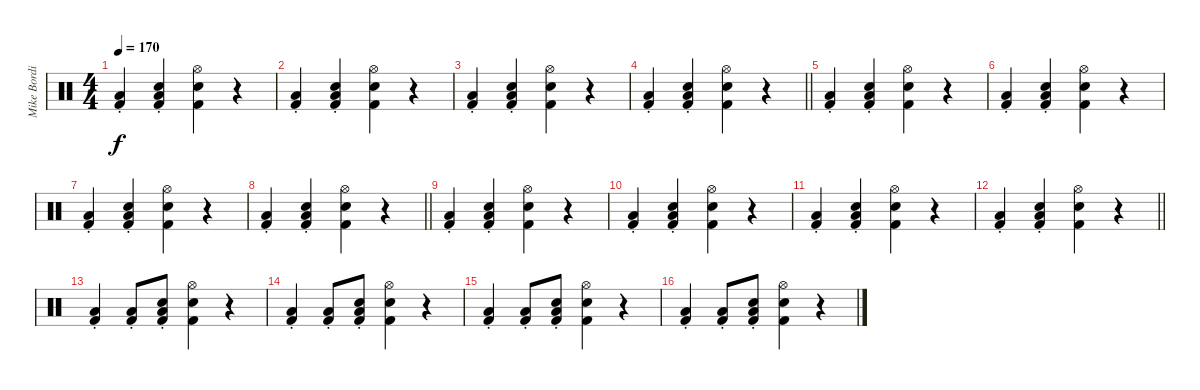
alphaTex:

\track ("Mike Bordin" "Mike Bordi") {instrument percussion}
\staff {score}
\articulation defaults
\ts (4 4)
\tempo 170
\clef neutral
\ks c
("Kick (hit) 2"{st} "Low Floor Tom (hit)").4{dy f volume 14} ("Snare (hit) 2" "Kick (hit) 2"{st} "Low Floor Tom (hit)").4 ("Hi-Hat (open)" "Snare (hit) 2" "Kick (hit) 2").4 r.4 |
("Kick (hit) 2"{st} "Low Floor Tom (hit)").4 ("Snare (hit) 2" "Kick (hit) 2"{st} "Low Floor Tom (hit)").4 ("Hi-Hat (open)" "Snare (hit) 2" "Kick (hit) 2").4 r.4 |
("Kick (hit) 2"{st} "Low Floor Tom (hit)").4 ("Snare (hit) 2" "Kick (hit) 2"{st} "Low Floor Tom (hit)").4 ("Hi-Hat (open)" "Snare (hit) 2" "Kick (hit) 2").4 r.4 |
\barLineRight lightlight
("Kick (hit) 2"{st} "Low Floor Tom (hit)").4 ("Snare (hit) 2" "Kick (hit) 2"{st} "Low Floor Tom (hit)").4 ("Hi-Hat (open)" "Snare (hit) 2" "Kick (hit) 2").4 r.4 |
("Kick (hit) 2"{st} "Low Floor Tom (hit)").4{volume 10} ("Snare (hit) 2" "Kick (hit) 2"{st} "Low Floor Tom (hit)").4 ("Hi-Hat (open)" "Snare (hit) 2" "Kick (hit) 2").4 r.4 |
("Kick (hit) 2"{st} "Low Floor Tom (hit)").4 ("Snare (hit) 2" "Kick (hit) 2"{st} "Low Floor Tom (hit)").4 ("Hi-Hat (open)" "Snare (hit) 2" "Kick (hit) 2").4 r.4 |
("Kick (hit) 2"{st} "Low Floor Tom (hit)").4 ("Snare (hit) 2" "Kick (hit) 2"{st} "Low Floor Tom (hit)").4 ("Hi-Hat (open)" "Snare (hit) 2" "Kick (hit) 2").4 r.4 |
\barLineRight lightlight
("Kick (hit) 2"{st} "Low Floor Tom (hit)").4 ("Snare (hit) 2" "Kick (hit) 2"{st} "Low Floor Tom (hit)").4 ("Hi-Hat (open)" "Snare (hit) 2" "Kick (hit) 2").4 r.4 |
("Kick (hit) 2"{st} "Low Floor Tom (hit)").4{volume 14} ("Snare (hit) 2" "Kick (hit) 2"{st} "Low Floor Tom (hit)").4 ("Hi-Hat (open)" "Snare (hit) 2" "Kick (hit) 2").4 r.4 |
("Kick (hit) 2"{st} "Low Floor Tom (hit)").4 ("Snare (hit) 2" "Kick (hit) 2"{st} "Low Floor Tom (hit)").4 ("Hi-Hat (open)" "Snare (hit) 2" "Kick (hit) 2").4 r.4 |
("Kick (hit) 2"{st} "Low Floor Tom (hit)").4 ("Snare (hit) 2" "Kick (hit) 2"{st} "Low Floor Tom (hit)").4 ("Hi-Hat (open)" "Snare (hit) 2" "Kick (hit) 2").4 r.4 |
\barLineRight lightlight
("Kick (hit) 2"{st} "Low Floor Tom (hit)").4 ("Snare (hit) 2" "Kick (hit) 2"{st} "Low Floor Tom (hit)").4 ("Hi-Hat (open)" "Snare (hit) 2" "Kick (hit) 2").4 r.4 |
("Kick (hit) 2"{st} "Low Floor Tom (hit)").4{volume 14} ("Kick (hit) 2"{st} "Low Floor Tom (hit)").8{volume 14} ("Snare (hit) 2" "Kick (hit) 2"{st} "Low Floor Tom (hit)").8 ("Hi-Hat (open)" "Snare (hit) 2" "Kick (hit) 2").4 r.4 |
("Kick (hit) 2"{st} "Low Floor Tom (hit)").4{volume 14} ("Kick (hit) 2"{st} "Low Floor Tom (hit)").8{volume 14} ("Snare (hit) 2" "Kick (hit) 2"{st} "Low Floor Tom (hit)").8 ("Hi-Hat (open)" "Snare (hit) 2" "Kick (hit) 2").4 r.4 |
("Kick (hit) 2"{st} "Low Floor Tom (hit)").4{volume 14} ("Kick (hit) 2"{st} "Low Floor Tom (hit)").8{volume 14} ("Snare (hit) 2" "Kick (hit) 2"{st} "Low Floor Tom (hit)").8 ("Hi-Hat (open)" "Snare (hit) 2" "Kick (hit) 2").4 r.4 |
("Kick (hit) 2"{st} "Low Floor Tom (hit)").4{volume 14} ("Kick (hit) 2"{st} "Low Floor Tom (hit)").8{volume 14} ("Snare (hit) 2" "Kick (hit) 2"{st} "Low Floor Tom (hit)").8 ("Hi-Hat (open)" "Snare (hit) 2" "Kick (hit) 2").4 r.4
